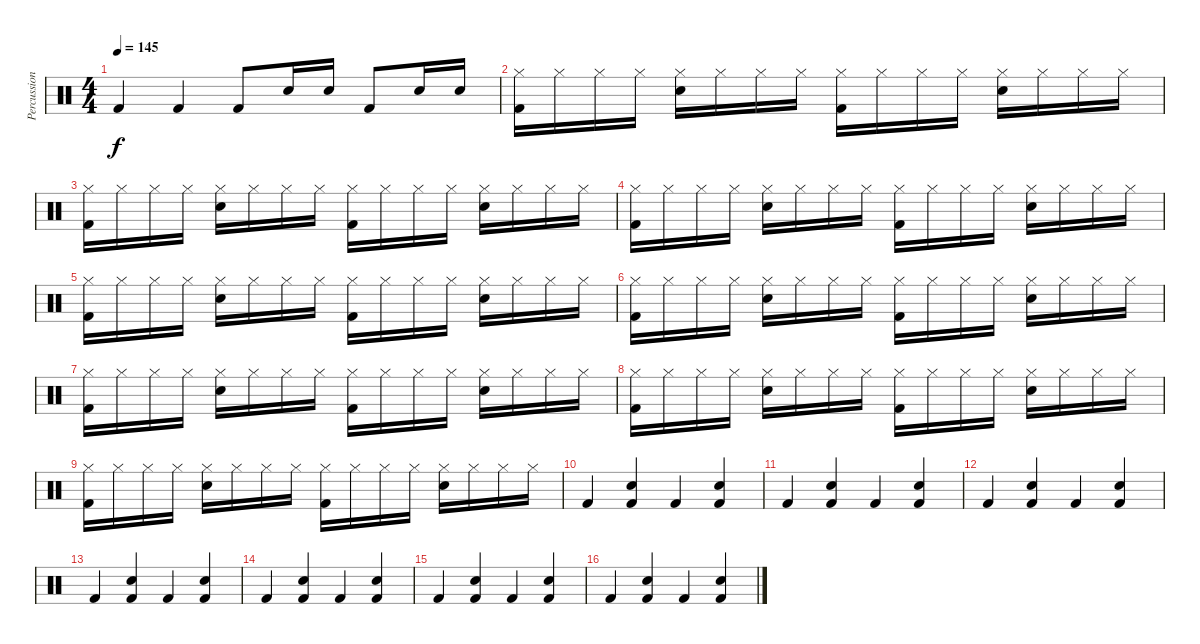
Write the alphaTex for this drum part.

\track ("Percussion" "Percussion") {instrument percussion}
\staff {score}
\articulation defaults
\ts (4 4)
\tempo 145
\clef neutral
\ks c "Kick (hit) 2".4{dy f} "Kick (hit) 2".4 "Kick (hit) 2".8 "Electric Snare (hit)".16 "Electric Snare (hit)".16 "Kick (hit) 2".8 "Electric Snare (hit)".16 "Electric Snare (hit)".16
|
("Hi-Hat (closed)" "Kick (hit) 2").16 "Hi-Hat (closed)".16 "Hi-Hat (closed)".16 "Hi-Hat (closed)".16 ("Hi-Hat (closed)" "Electric Snare (hit)").16 "Hi-Hat (closed)".16 "Hi-Hat (closed)".16 "Hi-Hat (closed)".16 ("Hi-Hat (closed)" "Kick (hit) 2").16 "Hi-Hat (closed)".16 "Hi-Hat (closed)".16 "Hi-Hat (closed)".16 ("Hi-Hat (closed)" "Electric Snare (hit)").16 "Hi-Hat (closed)".16 "Hi-Hat (closed)".16 "Hi-Hat (closed)".16 |
("Hi-Hat (closed)" "Kick (hit) 2").16 "Hi-Hat (closed)".16 "Hi-Hat (closed)".16 "Hi-Hat (closed)".16 ("Hi-Hat (closed)" "Electric Snare (hit)").16 "Hi-Hat (closed)".16 "Hi-Hat (closed)".16 "Hi-Hat (closed)".16 ("Hi-Hat (closed)" "Kick (hit) 2").16 "Hi-Hat (closed)".16 "Hi-Hat (closed)".16 "Hi-Hat (closed)".16 ("Hi-Hat (closed)" "Electric Snare (hit)").16 "Hi-Hat (closed)".16 "Hi-Hat (closed)".16 "Hi-Hat (closed)".16 |
("Hi-Hat (closed)" "Kick (hit) 2").16 "Hi-Hat (closed)".16 "Hi-Hat (closed)".16 "Hi-Hat (closed)".16 ("Hi-Hat (closed)" "Electric Snare (hit)").16 "Hi-Hat (closed)".16 "Hi-Hat (closed)".16 "Hi-Hat (closed)".16 ("Hi-Hat (closed)" "Kick (hit) 2").16 "Hi-Hat (closed)".16 "Hi-Hat (closed)".16 "Hi-Hat (closed)".16 ("Hi-Hat (closed)" "Electric Snare (hit)").16 "Hi-Hat (closed)".16 "Hi-Hat (closed)".16 "Hi-Hat (closed)".16 |
("Hi-Hat (closed)" "Kick (hit) 2").16 "Hi-Hat (closed)".16 "Hi-Hat (closed)".16 "Hi-Hat (closed)".16 ("Hi-Hat (closed)" "Electric Snare (hit)").16 "Hi-Hat (closed)".16 "Hi-Hat (closed)".16 "Hi-Hat (closed)".16 ("Hi-Hat (closed)" "Kick (hit) 2").16 "Hi-Hat (closed)".16 "Hi-Hat (closed)".16 "Hi-Hat (closed)".16 ("Hi-Hat (closed)" "Electric Snare (hit)").16 "Hi-Hat (closed)".16 "Hi-Hat (closed)".16 "Hi-Hat (closed)".16 |
("Hi-Hat (closed)" "Kick (hit) 2").16 "Hi-Hat (closed)".16 "Hi-Hat (closed)".16 "Hi-Hat (closed)".16 ("Hi-Hat (closed)" "Electric Snare (hit)").16 "Hi-Hat (closed)".16 "Hi-Hat (closed)".16 "Hi-Hat (closed)".16 ("Hi-Hat (closed)" "Kick (hit) 2").16 "Hi-Hat (closed)".16 "Hi-Hat (closed)".16 "Hi-Hat (closed)".16 ("Hi-Hat (closed)" "Electric Snare (hit)").16 "Hi-Hat (closed)".16 "Hi-Hat (closed)".16 "Hi-Hat (closed)".16 |
("Hi-Hat (closed)" "Kick (hit) 2").16 "Hi-Hat (closed)".16 "Hi-Hat (closed)".16 "Hi-Hat (closed)".16 ("Hi-Hat (closed)" "Electric Snare (hit)").16 "Hi-Hat (closed)".16 "Hi-Hat (closed)".16 "Hi-Hat (closed)".16 ("Hi-Hat (closed)" "Kick (hit) 2").16 "Hi-Hat (closed)".16 "Hi-Hat (closed)".16 "Hi-Hat (closed)".16 ("Hi-Hat (closed)" "Electric Snare (hit)").16 "Hi-Hat (closed)".16 "Hi-Hat (closed)".16 "Hi-Hat (closed)".16 |
("Hi-Hat (closed)" "Kick (hit) 2").16 "Hi-Hat (closed)".16 "Hi-Hat (closed)".16 "Hi-Hat (closed)".16 ("Hi-Hat (closed)" "Electric Snare (hit)").16 "Hi-Hat (closed)".16 "Hi-Hat (closed)".16 "Hi-Hat (closed)".16 ("Hi-Hat (closed)" "Kick (hit) 2").16 "Hi-Hat (closed)".16 "Hi-Hat (closed)".16 "Hi-Hat (closed)".16 ("Hi-Hat (closed)" "Electric Snare (hit)").16 "Hi-Hat (closed)".16 "Hi-Hat (closed)".16 "Hi-Hat (closed)".16 |
("Hi-Hat (closed)" "Kick (hit) 2").16 "Hi-Hat (closed)".16 "Hi-Hat (closed)".16 "Hi-Hat (closed)".16 ("Hi-Hat (closed)" "Electric Snare (hit)").16 "Hi-Hat (closed)".16 "Hi-Hat (closed)".16 "Hi-Hat (closed)".16 ("Hi-Hat (closed)" "Kick (hit) 2").16 "Hi-Hat (closed)".16 "Hi-Hat (closed)".16 "Hi-Hat (closed)".16 ("Hi-Hat (closed)" "Electric Snare (hit)").16 "Hi-Hat (closed)".16 "Hi-Hat (closed)".16 "Hi-Hat (closed)".16 |
"Kick (hit) 2".4 ("Electric Snare (hit)" "Kick (hit) 2").4 "Kick (hit) 2".4 ("Electric Snare (hit)" "Kick (hit) 2").4 |
"Kick (hit) 2".4 ("Electric Snare (hit)" "Kick (hit) 2").4 "Kick (hit) 2".4 ("Electric Snare (hit)" "Kick (hit) 2").4 |
"Kick (hit) 2".4 ("Electric Snare (hit)" "Kick (hit) 2").4 "Kick (hit) 2".4 ("Electric Snare (hit)" "Kick (hit) 2").4 |
"Kick (hit) 2".4 ("Electric Snare (hit)" "Kick (hit) 2").4 "Kick (hit) 2".4 ("Electric Snare (hit)" "Kick (hit) 2").4 |
"Kick (hit) 2".4 ("Electric Snare (hit)" "Kick (hit) 2").4 "Kick (hit) 2".4 ("Electric Snare (hit)" "Kick (hit) 2").4 |
"Kick (hit) 2".4 ("Electric Snare (hit)" "Kick (hit) 2").4 "Kick (hit) 2".4 ("Electric Snare (hit)" "Kick (hit) 2").4 |
"Kick (hit) 2".4 ("Electric Snare (hit)" "Kick (hit) 2").4 "Kick (hit) 2".4 ("Electric Snare (hit)" "Kick (hit) 2").4
